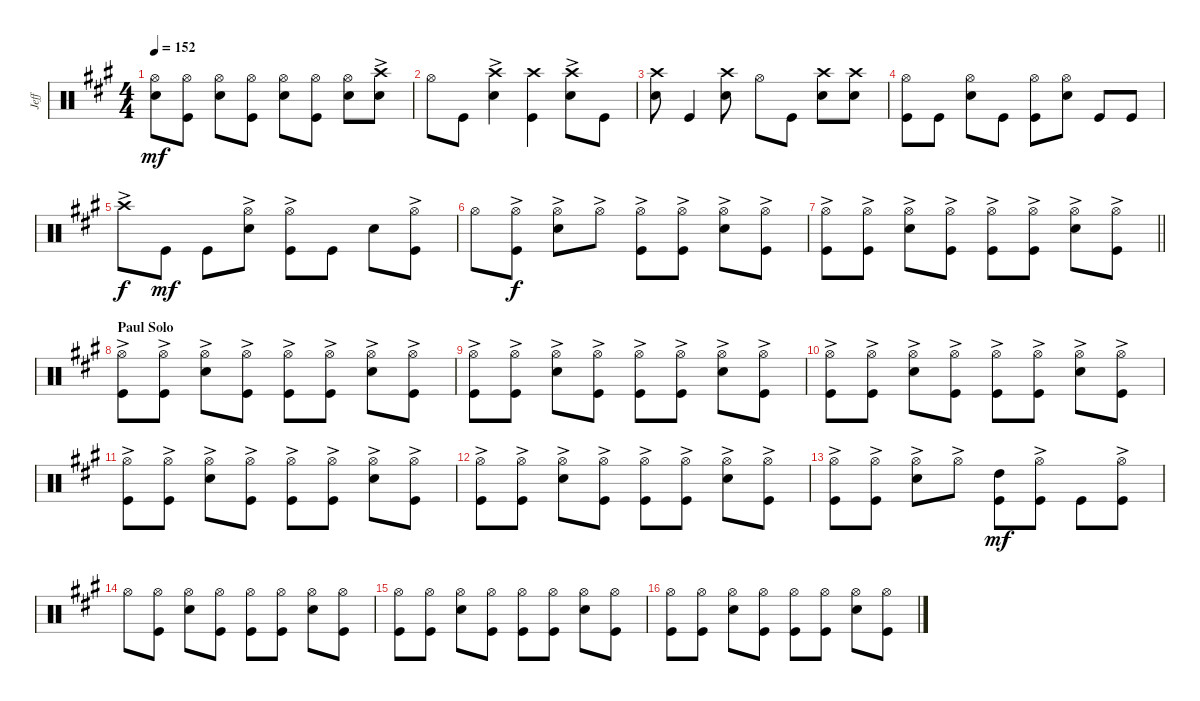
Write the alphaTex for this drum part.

\track ("Jeff" "Jeff") {instrument percussion}
\staff {score}
\articulation defaults
\ts (4 4)
\tempo 152
\clef neutral
\ks a
("Hi-Hat (open)" "Snare (hit) 2").8{dy mf} ("Hi-Hat (open)" "Kick (hit)").8 ("Hi-Hat (open)" "Snare (hit) 2").8 ("Hi-Hat (open)" "Kick (hit)").8 ("Hi-Hat (open)" "Snare (hit) 2").8 ("Hi-Hat (open)" "Kick (hit)").8 ("Hi-Hat (open)" "Snare (hit) 2").8 ("Crash high (hit)"{ac} "Snare (hit) 2").8 |
"Hi-Hat (open)".8 "Kick (hit)".8 ("Crash high (hit)" "Snare (hit) 2"{ac}).4 ("Crash high (hit)" "Kick (hit)").4 ("Crash high (hit)"{ac} "Snare (hit) 2").8 "Kick (hit)".8 |
("Crash high (hit)" "Snare (hit) 2").8 "Kick (hit)".4 ("Crash high (hit)" "Snare (hit) 2").8 "Hi-Hat (open)".8 "Kick (hit)".8 ("Crash high (hit)" "Snare (hit) 2").8 ("Crash high (hit)" "Snare (hit) 2").8 |
("Hi-Hat (open)" "Kick (hit)").8 "Kick (hit)".8 ("Hi-Hat (open)" "Snare (hit) 2").8 "Kick (hit)".8 ("Hi-Hat (open)" "Kick (hit)").8 ("Hi-Hat (open)" "Snare (hit) 2").8 "Kick (hit)".8 "Kick (hit)".8 |
"Crash high (hit)"{ac}.8{dy f} "Kick (hit)".8{dy mf} "Kick (hit)".8 ("Hi-Hat (open)"{ac} "Snare (hit) 2").8 ("Hi-Hat (open)"{ac} "Kick (hit)").8 "Kick (hit)".8 "Snare (hit) 2".8 ("Hi-Hat (open)"{ac} "Kick (hit)").8 |
"Hi-Hat (open)".8 ("Hi-Hat (open)"{ac} "Kick (hit)"{ac}).8{dy f} ("Hi-Hat (open)"{ac} "Snare (hit) 2"{ac}).8 "Hi-Hat (open)"{ac}.8 ("Hi-Hat (open)"{ac} "Kick (hit)"{ac}).8 ("Hi-Hat (open)"{ac} "Kick (hit)"{ac}).8 ("Hi-Hat (open)"{ac} "Snare (hit) 2"{ac}).8 ("Hi-Hat (open)"{ac} "Kick (hit)"{ac}).8 |
\barLineRight lightlight
("Hi-Hat (open)"{ac} "Kick (hit)"{ac}).8 ("Hi-Hat (open)"{ac} "Kick (hit)"{ac}).8 ("Hi-Hat (open)"{ac} "Snare (hit) 2"{ac}).8 ("Hi-Hat (open)"{ac} "Kick (hit)"{ac}).8 ("Hi-Hat (open)"{ac} "Kick (hit)"{ac}).8 ("Hi-Hat (open)"{ac} "Kick (hit)"{ac}).8 ("Hi-Hat (open)"{ac} "Snare (hit) 2"{ac}).8 ("Hi-Hat (open)"{ac} "Kick (hit)"{ac}).8 |
\section ("" "Paul Solo")
("Hi-Hat (open)"{ac} "Kick (hit)"{ac}).8 ("Hi-Hat (open)"{ac} "Kick (hit)"{ac}).8 ("Hi-Hat (open)"{ac} "Snare (hit) 2"{ac}).8 ("Hi-Hat (open)"{ac} "Kick (hit)"{ac}).8 ("Hi-Hat (open)"{ac} "Kick (hit)"{ac}).8 ("Hi-Hat (open)"{ac} "Kick (hit)"{ac}).8 ("Hi-Hat (open)"{ac} "Snare (hit) 2"{ac}).8 ("Hi-Hat (open)"{ac} "Kick (hit)"{ac}).8 |
("Hi-Hat (open)"{ac} "Kick (hit)"{ac}).8 ("Hi-Hat (open)"{ac} "Kick (hit)"{ac}).8 ("Hi-Hat (open)"{ac} "Snare (hit) 2"{ac}).8 ("Hi-Hat (open)"{ac} "Kick (hit)"{ac}).8 ("Hi-Hat (open)"{ac} "Kick (hit)"{ac}).8 ("Hi-Hat (open)"{ac} "Kick (hit)"{ac}).8 ("Hi-Hat (open)"{ac} "Snare (hit) 2"{ac}).8 ("Hi-Hat (open)"{ac} "Kick (hit)"{ac}).8 |
("Hi-Hat (open)"{ac} "Kick (hit)"{ac}).8 ("Hi-Hat (open)"{ac} "Kick (hit)"{ac}).8 ("Hi-Hat (open)"{ac} "Snare (hit) 2"{ac}).8 ("Hi-Hat (open)"{ac} "Kick (hit)"{ac}).8 ("Hi-Hat (open)"{ac} "Kick (hit)"{ac}).8 ("Hi-Hat (open)"{ac} "Kick (hit)"{ac}).8 ("Hi-Hat (open)"{ac} "Snare (hit) 2"{ac}).8 ("Hi-Hat (open)"{ac} "Kick (hit)"{ac}).8 |
("Hi-Hat (open)"{ac} "Kick (hit)"{ac}).8 ("Hi-Hat (open)"{ac} "Kick (hit)"{ac}).8 ("Hi-Hat (open)"{ac} "Snare (hit) 2"{ac}).8 ("Hi-Hat (open)"{ac} "Kick (hit)"{ac}).8 ("Hi-Hat (open)"{ac} "Kick (hit)"{ac}).8 ("Hi-Hat (open)"{ac} "Kick (hit)"{ac}).8 ("Hi-Hat (open)"{ac} "Snare (hit) 2"{ac}).8 ("Hi-Hat (open)"{ac} "Kick (hit)"{ac}).8 |
("Hi-Hat (open)"{ac} "Kick (hit)"{ac}).8 ("Hi-Hat (open)"{ac} "Kick (hit)"{ac}).8 ("Hi-Hat (open)"{ac} "Snare (hit) 2"{ac}).8 ("Hi-Hat (open)"{ac} "Kick (hit)"{ac}).8 ("Hi-Hat (open)"{ac} "Kick (hit)"{ac}).8 ("Hi-Hat (open)"{ac} "Kick (hit)"{ac}).8 ("Hi-Hat (open)"{ac} "Snare (hit) 2"{ac}).8 ("Hi-Hat (open)"{ac} "Kick (hit)"{ac}).8 |
("Hi-Hat (open)"{ac} "Kick (hit)"{ac}).8 ("Hi-Hat (open)"{ac} "Kick (hit)"{ac}).8 ("Hi-Hat (open)"{ac} "Snare (hit) 2"{ac}).8 "Hi-Hat (open)"{ac}.8 ("High Tom (hit)" "Kick (hit)").8{dy mf} ("Hi-Hat (open)"{ac} "Kick (hit)").8 "Kick (hit)".8 ("Hi-Hat (open)"{ac} "Kick (hit)").8 |
"Hi-Hat (open)".8 ("Hi-Hat (open)" "Kick (hit)").8 ("Hi-Hat (open)" "Snare (hit) 2").8 ("Hi-Hat (open)" "Kick (hit)").8 ("Hi-Hat (open)" "Kick (hit)").8 ("Hi-Hat (open)" "Kick (hit)").8 ("Hi-Hat (open)" "Snare (hit) 2").8 ("Hi-Hat (open)" "Kick (hit)").8 |
("Hi-Hat (open)" "Kick (hit)").8 ("Hi-Hat (open)" "Kick (hit)").8 ("Hi-Hat (open)" "Snare (hit) 2").8 ("Hi-Hat (open)" "Kick (hit)").8 ("Hi-Hat (open)" "Kick (hit)").8 ("Hi-Hat (open)" "Kick (hit)").8 ("Hi-Hat (open)" "Snare (hit) 2").8 ("Hi-Hat (open)" "Kick (hit)").8 |
("Hi-Hat (open)" "Kick (hit)").8 ("Hi-Hat (open)" "Kick (hit)").8 ("Hi-Hat (open)" "Snare (hit) 2").8 ("Hi-Hat (open)" "Kick (hit)").8 ("Hi-Hat (open)" "Kick (hit)").8 ("Hi-Hat (open)" "Kick (hit)").8 ("Hi-Hat (open)" "Snare (hit) 2").8 ("Hi-Hat (open)" "Kick (hit)").8
